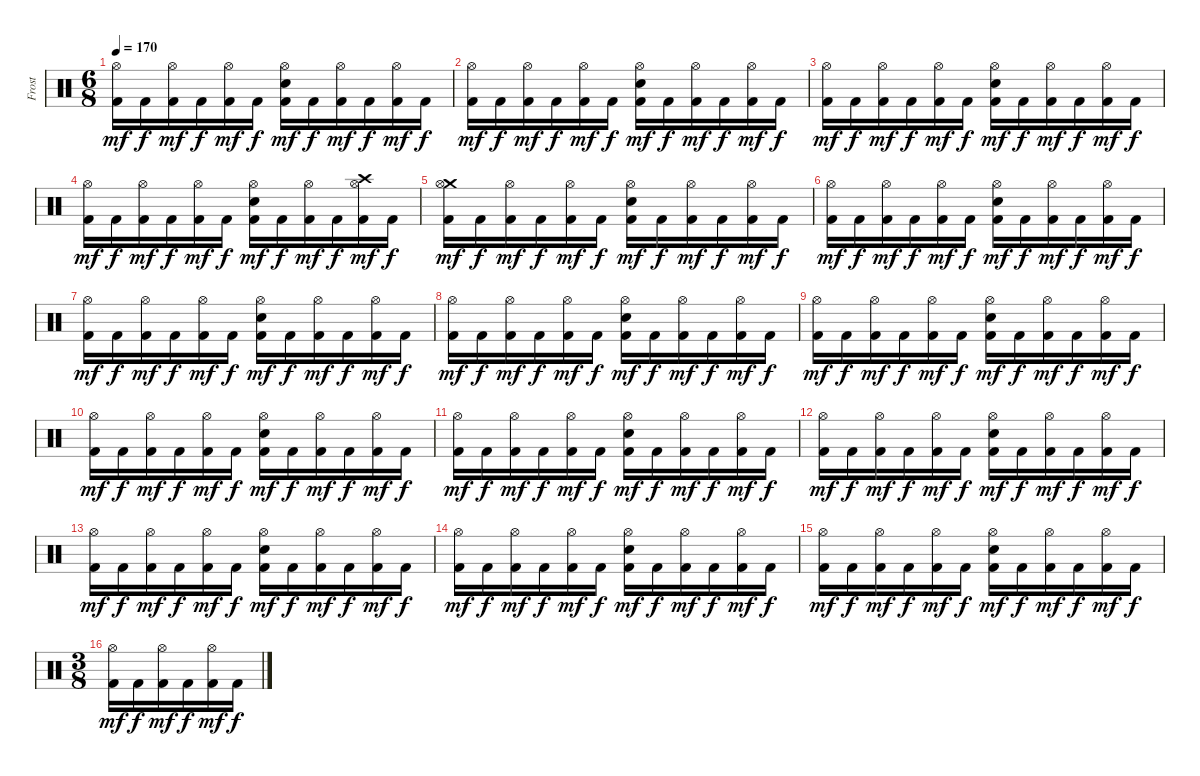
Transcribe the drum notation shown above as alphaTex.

\track ("Frost" "Frost") {instrument percussion}
\staff {score}
\articulation defaults
\ts (6 8)
\tempo 170
\clef neutral
\ks c
("Kick (hit) 2" "Hi-Hat (open)").16{dy mf} "Kick (hit) 2".16{dy f} ("Kick (hit) 2" "Hi-Hat (open)").16{dy mf} "Kick (hit) 2".16{dy f} ("Kick (hit) 2" "Hi-Hat (open)").16{dy mf} "Kick (hit) 2".16{dy f} ("Kick (hit) 2" "Hi-Hat (open)" "Snare (hit) 2").16{dy mf} "Kick (hit) 2".16{dy f} ("Kick (hit) 2" "Hi-Hat (open)").16{dy mf} "Kick (hit) 2".16{dy f} ("Kick (hit) 2" "Hi-Hat (open)").16{dy mf} "Kick (hit) 2".16{dy f} |
("Kick (hit) 2" "Hi-Hat (open)").16{dy mf} "Kick (hit) 2".16{dy f} ("Kick (hit) 2" "Hi-Hat (open)").16{dy mf} "Kick (hit) 2".16{dy f} ("Kick (hit) 2" "Hi-Hat (open)").16{dy mf} "Kick (hit) 2".16{dy f} ("Kick (hit) 2" "Hi-Hat (open)" "Snare (hit) 2").16{dy mf} "Kick (hit) 2".16{dy f} ("Kick (hit) 2" "Hi-Hat (open)").16{dy mf} "Kick (hit) 2".16{dy f} ("Kick (hit) 2" "Hi-Hat (open)").16{dy mf} "Kick (hit) 2".16{dy f} |
("Kick (hit) 2" "Hi-Hat (open)").16{dy mf} "Kick (hit) 2".16{dy f} ("Kick (hit) 2" "Hi-Hat (open)").16{dy mf} "Kick (hit) 2".16{dy f} ("Kick (hit) 2" "Hi-Hat (open)").16{dy mf} "Kick (hit) 2".16{dy f} ("Kick (hit) 2" "Hi-Hat (open)" "Snare (hit) 2").16{dy mf} "Kick (hit) 2".16{dy f} ("Kick (hit) 2" "Hi-Hat (open)").16{dy mf} "Kick (hit) 2".16{dy f} ("Kick (hit) 2" "Hi-Hat (open)").16{dy mf} "Kick (hit) 2".16{dy f} |
("Kick (hit) 2" "Hi-Hat (open)").16{dy mf} "Kick (hit) 2".16{dy f} ("Kick (hit) 2" "Hi-Hat (open)").16{dy mf} "Kick (hit) 2".16{dy f} ("Kick (hit) 2" "Hi-Hat (open)").16{dy mf} "Kick (hit) 2".16{dy f} ("Kick (hit) 2" "Hi-Hat (open)" "Snare (hit) 2").16{dy mf} "Kick (hit) 2".16{dy f} ("Kick (hit) 2" "Hi-Hat (open)").16{dy mf} "Kick (hit) 2".16{dy f} ("Kick (hit) 2" "Crash high (hit)" "Hi-Hat (open)").16{dy mf} "Kick (hit) 2".16{dy f} |
("Kick (hit) 2" "Crash medium (hit)" "Hi-Hat (open)").16{dy mf} "Kick (hit) 2".16{dy f} ("Kick (hit) 2" "Hi-Hat (open)").16{dy mf} "Kick (hit) 2".16{dy f} ("Kick (hit) 2" "Hi-Hat (open)").16{dy mf} "Kick (hit) 2".16{dy f} ("Kick (hit) 2" "Hi-Hat (open)" "Snare (hit) 2").16{dy mf} "Kick (hit) 2".16{dy f} ("Kick (hit) 2" "Hi-Hat (open)").16{dy mf} "Kick (hit) 2".16{dy f} ("Kick (hit) 2" "Hi-Hat (open)").16{dy mf} "Kick (hit) 2".16{dy f} |
("Kick (hit) 2" "Hi-Hat (open)").16{dy mf} "Kick (hit) 2".16{dy f} ("Kick (hit) 2" "Hi-Hat (open)").16{dy mf} "Kick (hit) 2".16{dy f} ("Kick (hit) 2" "Hi-Hat (open)").16{dy mf} "Kick (hit) 2".16{dy f} ("Kick (hit) 2" "Hi-Hat (open)" "Snare (hit) 2").16{dy mf} "Kick (hit) 2".16{dy f} ("Kick (hit) 2" "Hi-Hat (open)").16{dy mf} "Kick (hit) 2".16{dy f} ("Kick (hit) 2" "Hi-Hat (open)").16{dy mf} "Kick (hit) 2".16{dy f} |
("Kick (hit) 2" "Hi-Hat (open)").16{dy mf} "Kick (hit) 2".16{dy f} ("Kick (hit) 2" "Hi-Hat (open)").16{dy mf} "Kick (hit) 2".16{dy f} ("Kick (hit) 2" "Hi-Hat (open)").16{dy mf} "Kick (hit) 2".16{dy f} ("Kick (hit) 2" "Hi-Hat (open)" "Snare (hit) 2").16{dy mf} "Kick (hit) 2".16{dy f} ("Kick (hit) 2" "Hi-Hat (open)").16{dy mf} "Kick (hit) 2".16{dy f} ("Kick (hit) 2" "Hi-Hat (open)").16{dy mf} "Kick (hit) 2".16{dy f} |
("Kick (hit) 2" "Hi-Hat (open)").16{dy mf} "Kick (hit) 2".16{dy f} ("Kick (hit) 2" "Hi-Hat (open)").16{dy mf} "Kick (hit) 2".16{dy f} ("Kick (hit) 2" "Hi-Hat (open)").16{dy mf} "Kick (hit) 2".16{dy f} ("Kick (hit) 2" "Hi-Hat (open)" "Snare (hit) 2").16{dy mf} "Kick (hit) 2".16{dy f} ("Kick (hit) 2" "Hi-Hat (open)").16{dy mf} "Kick (hit) 2".16{dy f} ("Kick (hit) 2" "Hi-Hat (open)").16{dy mf} "Kick (hit) 2".16{dy f} |
("Kick (hit) 2" "Hi-Hat (open)").16{dy mf} "Kick (hit) 2".16{dy f} ("Kick (hit) 2" "Hi-Hat (open)").16{dy mf} "Kick (hit) 2".16{dy f} ("Kick (hit) 2" "Hi-Hat (open)").16{dy mf} "Kick (hit) 2".16{dy f} ("Kick (hit) 2" "Hi-Hat (open)" "Snare (hit) 2").16{dy mf} "Kick (hit) 2".16{dy f} ("Kick (hit) 2" "Hi-Hat (open)").16{dy mf} "Kick (hit) 2".16{dy f} ("Kick (hit) 2" "Hi-Hat (open)").16{dy mf} "Kick (hit) 2".16{dy f} |
("Kick (hit) 2" "Hi-Hat (open)").16{dy mf} "Kick (hit) 2".16{dy f} ("Kick (hit) 2" "Hi-Hat (open)").16{dy mf} "Kick (hit) 2".16{dy f} ("Kick (hit) 2" "Hi-Hat (open)").16{dy mf} "Kick (hit) 2".16{dy f} ("Kick (hit) 2" "Hi-Hat (open)" "Snare (hit) 2").16{dy mf} "Kick (hit) 2".16{dy f} ("Kick (hit) 2" "Hi-Hat (open)").16{dy mf} "Kick (hit) 2".16{dy f} ("Kick (hit) 2" "Hi-Hat (open)").16{dy mf} "Kick (hit) 2".16{dy f} |
("Kick (hit) 2" "Hi-Hat (open)").16{dy mf} "Kick (hit) 2".16{dy f} ("Kick (hit) 2" "Hi-Hat (open)").16{dy mf} "Kick (hit) 2".16{dy f} ("Kick (hit) 2" "Hi-Hat (open)").16{dy mf} "Kick (hit) 2".16{dy f} ("Kick (hit) 2" "Hi-Hat (open)" "Snare (hit) 2").16{dy mf} "Kick (hit) 2".16{dy f} ("Kick (hit) 2" "Hi-Hat (open)").16{dy mf} "Kick (hit) 2".16{dy f} ("Kick (hit) 2" "Hi-Hat (open)").16{dy mf} "Kick (hit) 2".16{dy f} |
("Kick (hit) 2" "Hi-Hat (open)").16{dy mf} "Kick (hit) 2".16{dy f} ("Kick (hit) 2" "Hi-Hat (open)").16{dy mf} "Kick (hit) 2".16{dy f} ("Kick (hit) 2" "Hi-Hat (open)").16{dy mf} "Kick (hit) 2".16{dy f} ("Kick (hit) 2" "Hi-Hat (open)" "Snare (hit) 2").16{dy mf} "Kick (hit) 2".16{dy f} ("Kick (hit) 2" "Hi-Hat (open)").16{dy mf} "Kick (hit) 2".16{dy f} ("Kick (hit) 2" "Hi-Hat (open)").16{dy mf} "Kick (hit) 2".16{dy f} |
("Kick (hit) 2" "Hi-Hat (open)").16{dy mf} "Kick (hit) 2".16{dy f} ("Kick (hit) 2" "Hi-Hat (open)").16{dy mf} "Kick (hit) 2".16{dy f} ("Kick (hit) 2" "Hi-Hat (open)").16{dy mf} "Kick (hit) 2".16{dy f} ("Kick (hit) 2" "Hi-Hat (open)" "Snare (hit) 2").16{dy mf} "Kick (hit) 2".16{dy f} ("Kick (hit) 2" "Hi-Hat (open)").16{dy mf} "Kick (hit) 2".16{dy f} ("Kick (hit) 2" "Hi-Hat (open)").16{dy mf} "Kick (hit) 2".16{dy f} |
("Kick (hit) 2" "Hi-Hat (open)").16{dy mf} "Kick (hit) 2".16{dy f} ("Kick (hit) 2" "Hi-Hat (open)").16{dy mf} "Kick (hit) 2".16{dy f} ("Kick (hit) 2" "Hi-Hat (open)").16{dy mf} "Kick (hit) 2".16{dy f} ("Kick (hit) 2" "Hi-Hat (open)" "Snare (hit) 2").16{dy mf} "Kick (hit) 2".16{dy f} ("Kick (hit) 2" "Hi-Hat (open)").16{dy mf} "Kick (hit) 2".16{dy f} ("Kick (hit) 2" "Hi-Hat (open)").16{dy mf} "Kick (hit) 2".16{dy f} |
("Kick (hit) 2" "Hi-Hat (open)").16{dy mf} "Kick (hit) 2".16{dy f} ("Kick (hit) 2" "Hi-Hat (open)").16{dy mf} "Kick (hit) 2".16{dy f} ("Kick (hit) 2" "Hi-Hat (open)").16{dy mf} "Kick (hit) 2".16{dy f} ("Kick (hit) 2" "Hi-Hat (open)" "Snare (hit) 2").16{dy mf} "Kick (hit) 2".16{dy f} ("Kick (hit) 2" "Hi-Hat (open)").16{dy mf} "Kick (hit) 2".16{dy f} ("Kick (hit) 2" "Hi-Hat (open)").16{dy mf} "Kick (hit) 2".16{dy f} |
\ts (3 8)
("Kick (hit) 2" "Hi-Hat (open)").16{dy mf} "Kick (hit) 2".16{dy f} ("Kick (hit) 2" "Hi-Hat (open)").16{dy mf} "Kick (hit) 2".16{dy f} ("Kick (hit) 2" "Hi-Hat (open)").16{dy mf} "Kick (hit) 2".16{dy f}
